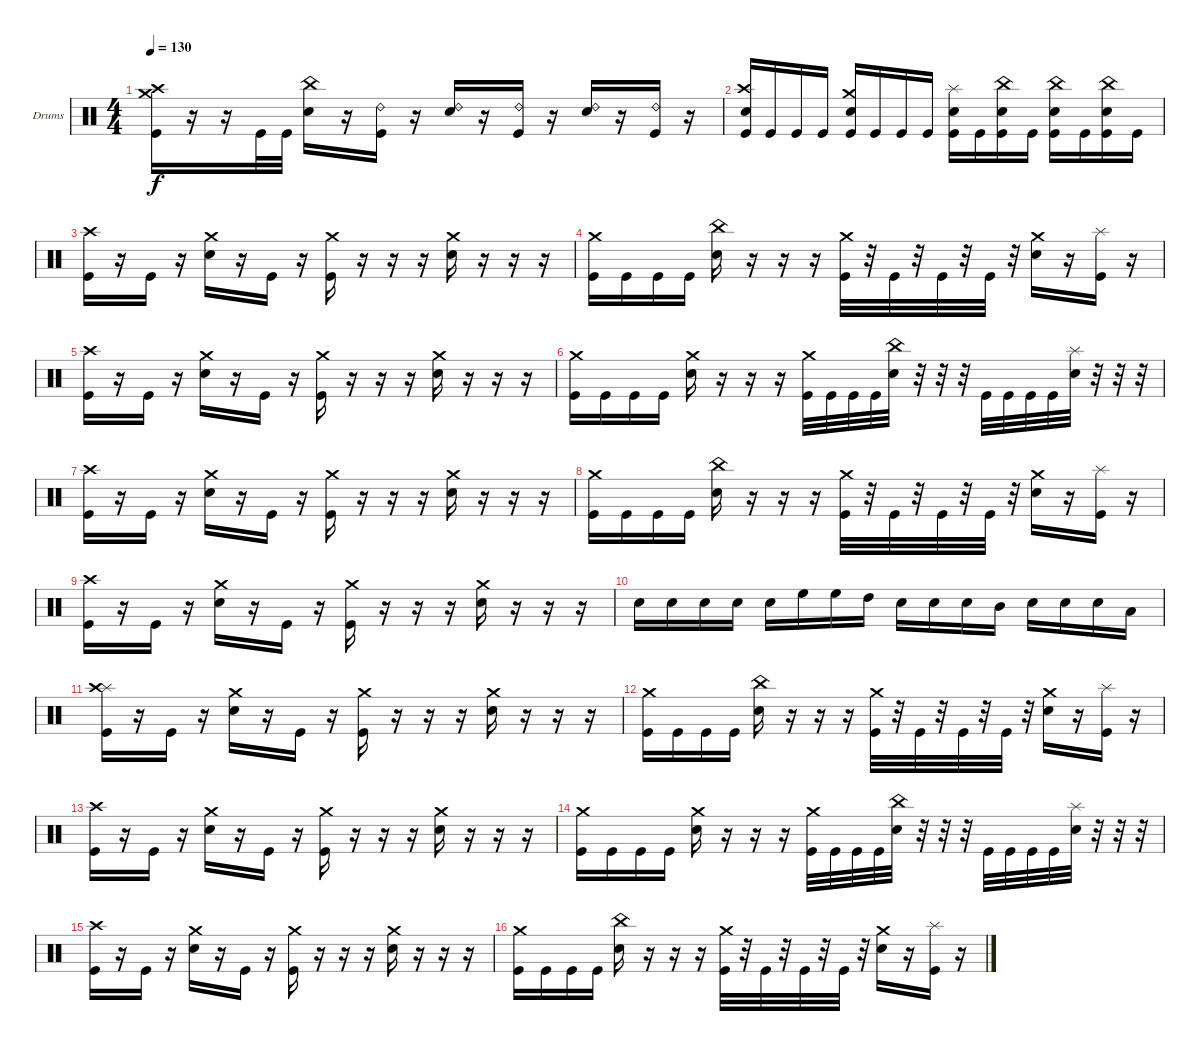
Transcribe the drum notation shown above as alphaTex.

\defaultSystemsLayout 4
\bracketExtendMode groupsimilarinstruments
\firstSystemTrackNameOrientation horizontal
\otherSystemsTrackNameOrientation horizontal
\track ("Drumkit" "Drums") {instrument percussion}
\staff {score}
\articulation defaults
\ts (4 4)
\tempo 130
\clef neutral
\scale
0.333333
\ks c
("Kick (hit)" "Crash medium (hit)" "Crash high (hit)").16{dy f} r.16 r.16 "Kick (hit)".32 "Kick (hit)".32 ("Snare (hit) 2" "China (hit)").16 r.16 ("Kick (hit)" "Ride (bell) 2").16 r.16 ("Snare (hit) 2" "Ride (bell) 2").16 r.16 ("Kick (hit)" "Ride (bell) 2").16 r.16 ("Snare (hit) 2" "Ride (bell) 2").16 r.16 ("Kick (hit)" "Ride (bell) 2").16 r.16 |
\scale
0.333333 ("Kick (hit)" "Snare (hit) 2" "Crash high (hit)").16 "Kick (hit)".16 "Kick (hit)".16 "Kick (hit)".16 ("Kick (hit)" "Snare (hit) 2" "Crash medium (hit)").16 "Kick (hit)".16 "Kick (hit)".16 "Kick (hit)".16 ("Kick (hit)" "Snare (hit) 2" "Splash (hit)").16 "Kick (hit)".16 ("Kick (hit)" "Snare (hit) 2" "China (hit)").16 "Kick (hit)".16 ("Kick (hit)" "Snare (hit) 2" "China (hit)").16 "Kick (hit)".16 ("Kick (hit)" "Snare (hit) 2" "China (hit)").16 "Kick (hit)".16 |
\scale
0.333333 ("Kick (hit)" "Crash high (hit)").16 r.16 "Kick (hit)".16 r.16 ("Snare (hit) 2" "Crash medium (hit)").16 r.16 "Kick (hit)".16 r.16 ("Kick (hit)" "Crash medium (hit)").16 r.16 r.16 r.16 ("Snare (hit) 2" "Crash medium (hit)").16 r.16 r.16 r.16 |
\scale
0.333333 ("Kick (hit)" "Crash medium (hit)").16 "Kick (hit)".16 "Kick (hit)".16 "Kick (hit)".16 ("Snare (hit) 2" "China (hit)").16 r.16 r.16 r.16 ("Kick (hit)" "Crash medium (hit)").32 r.32 "Kick (hit)".32 r.32 "Kick (hit)".32 r.32 "Kick (hit)".32 r.32 ("Snare (hit) 2" "Crash medium (hit)").16 r.16 ("Kick (hit)" "Splash (hit)").16 r.16 |
\scale
0.333333 ("Kick (hit)" "Crash high (hit)").16 r.16 "Kick (hit)".16 r.16 ("Snare (hit) 2" "Crash medium (hit)").16 r.16 "Kick (hit)".16 r.16 ("Kick (hit)" "Crash medium (hit)").16 r.16 r.16 r.16 ("Snare (hit) 2" "Crash medium (hit)").16 r.16 r.16 r.16 |
\scale
0.333333 ("Kick (hit)" "Crash medium (hit)").16 "Kick (hit)".16 "Kick (hit)".16 "Kick (hit)".16 ("Snare (hit) 2" "Crash medium (hit)").16 r.16 r.16 r.16 ("Kick (hit)" "Crash medium (hit)").32 "Kick (hit)".32 "Kick (hit)".32 "Kick (hit)".32 ("Snare (hit) 2" "China (hit)").32 r.32 r.32 r.32 "Kick (hit)".32 "Kick (hit)".32 "Kick (hit)".32 "Kick (hit)".32 ("Snare (hit) 2" "Splash (hit)").32 r.32 r.32 r.32 |
\scale
0.333333 ("Kick (hit)" "Crash high (hit)").16 r.16 "Kick (hit)".16 r.16 ("Snare (hit) 2" "Crash medium (hit)").16 r.16 "Kick (hit)".16 r.16 ("Kick (hit)" "Crash medium (hit)").16 r.16 r.16 r.16 ("Snare (hit) 2" "Crash medium (hit)").16 r.16 r.16 r.16 |
\scale
0.333333 ("Kick (hit)" "Crash medium (hit)").16 "Kick (hit)".16 "Kick (hit)".16 "Kick (hit)".16 ("Snare (hit) 2" "China (hit)").16 r.16 r.16 r.16 ("Kick (hit)" "Crash medium (hit)").32 r.32 "Kick (hit)".32 r.32 "Kick (hit)".32 r.32 "Kick (hit)".32 r.32 ("Snare (hit) 2" "Crash medium (hit)").16 r.16 ("Kick (hit)" "Splash (hit)").16 r.16 |
\scale
0.333333 ("Kick (hit)" "Crash high (hit)").16 r.16 "Kick (hit)".16 r.16 ("Snare (hit) 2" "Crash medium (hit)").16 r.16 "Kick (hit)".16 r.16 ("Kick (hit)" "Crash medium (hit)").16 r.16 r.16 r.16 ("Snare (hit) 2" "Crash medium (hit)").16 r.16 r.16 r.16 |
\scale
0.333333 "Snare (hit) 2".16 "Snare (hit) 2".16 "Snare (hit) 2".16 "Snare (hit) 2".16 "Snare (hit) 2".16 "High Floor Tom (hit)".16 "High Floor Tom (hit)".16 "High Tom (hit)".16 "Snare (hit) 2".16 "Snare (hit) 2".16 "Snare (hit) 2".16 "Mid Tom (hit)".16 "Snare (hit) 2".16 "Snare (hit) 2".16 "Snare (hit) 2".16 "Low Tom (hit)".16 |
\scale
0.333333 ("Kick (hit)" "Splash (hit)" "Crash high (hit)").16 r.16 "Kick (hit)".16 r.16 ("Snare (hit) 2" "Crash medium (hit)").16 r.16 "Kick (hit)".16 r.16 ("Kick (hit)" "Crash medium (hit)").16 r.16 r.16 r.16 ("Snare (hit) 2" "Crash medium (hit)").16 r.16 r.16 r.16 |
\scale
0.333333 ("Kick (hit)" "Crash medium (hit)").16 "Kick (hit)".16 "Kick (hit)".16 "Kick (hit)".16 ("Snare (hit) 2" "China (hit)").16 r.16 r.16 r.16 ("Kick (hit)" "Crash medium (hit)").32 r.32 "Kick (hit)".32 r.32 "Kick (hit)".32 r.32 "Kick (hit)".32 r.32 ("Snare (hit) 2" "Crash medium (hit)").16 r.16 ("Kick (hit)" "Splash (hit)").16 r.16 |
\scale
0.333333 ("Kick (hit)" "Crash high (hit)").16 r.16 "Kick (hit)".16 r.16 ("Snare (hit) 2" "Crash medium (hit)").16 r.16 "Kick (hit)".16 r.16 ("Kick (hit)" "Crash medium (hit)").16 r.16 r.16 r.16 ("Snare (hit) 2" "Crash medium (hit)").16 r.16 r.16 r.16 |
\scale
0.333333 ("Kick (hit)" "Crash medium (hit)").16 "Kick (hit)".16 "Kick (hit)".16 "Kick (hit)".16 ("Snare (hit) 2" "Crash medium (hit)").16 r.16 r.16 r.16 ("Kick (hit)" "Crash medium (hit)").32 "Kick (hit)".32 "Kick (hit)".32 "Kick (hit)".32 ("Snare (hit) 2" "China (hit)").32 r.32 r.32 r.32 "Kick (hit)".32 "Kick (hit)".32 "Kick (hit)".32 "Kick (hit)".32 ("Snare (hit) 2" "Splash (hit)").32 r.32 r.32 r.32 |
\scale
0.333333 ("Kick (hit)" "Crash high (hit)").16 r.16 "Kick (hit)".16 r.16 ("Snare (hit) 2" "Crash medium (hit)").16 r.16 "Kick (hit)".16 r.16 ("Kick (hit)" "Crash medium (hit)").16 r.16 r.16 r.16 ("Snare (hit) 2" "Crash medium (hit)").16 r.16 r.16 r.16 |
\scale
0.333333 ("Kick (hit)" "Crash medium (hit)").16 "Kick (hit)".16 "Kick (hit)".16 "Kick (hit)".16 ("Snare (hit) 2" "China (hit)").16 r.16 r.16 r.16 ("Kick (hit)" "Crash medium (hit)").32 r.32 "Kick (hit)".32 r.32 "Kick (hit)".32 r.32 "Kick (hit)".32 r.32 ("Snare (hit) 2" "Crash medium (hit)").16 r.16 ("Kick (hit)" "Splash (hit)").16 r.16
